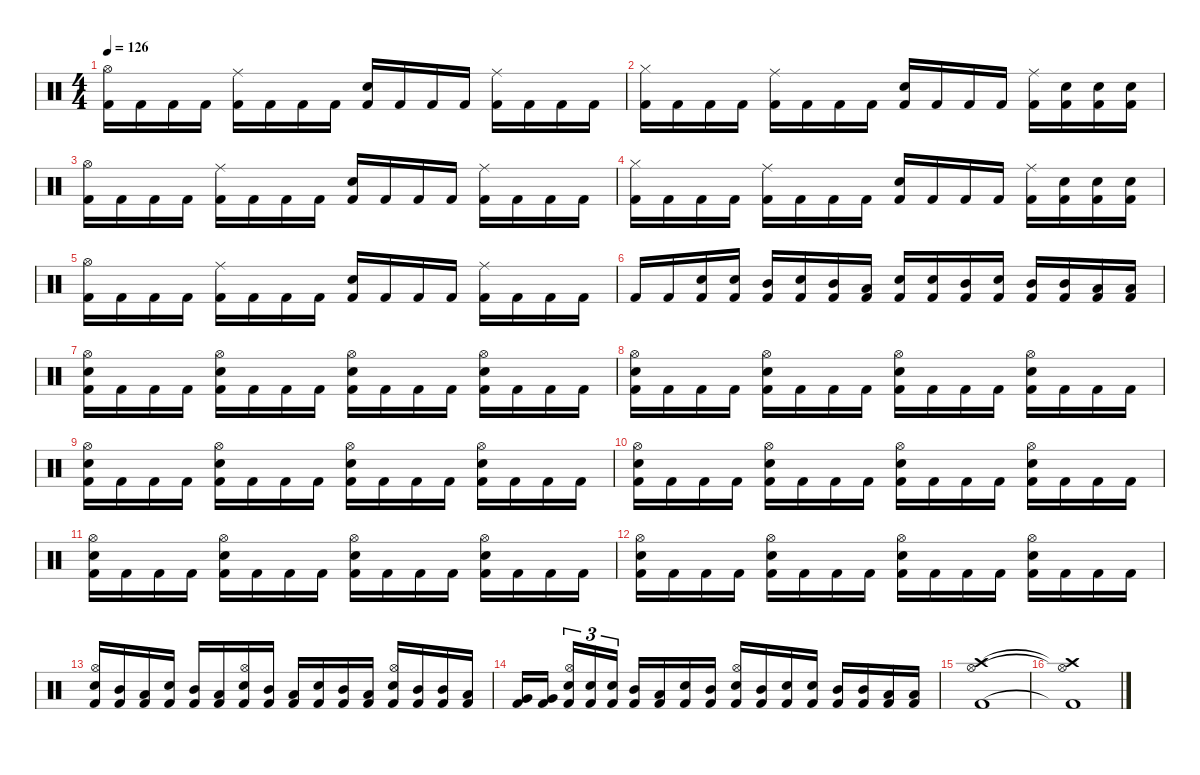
\defaultSystemsLayout 4
\hideDynamics
\bracketExtendMode nobrackets
\singleTrackTrackNamePolicy hidden
\multiTrackTrackNamePolicy hidden
\firstSystemTrackNameMode fullname
\firstSystemTrackNameOrientation horizontal
\otherSystemsTrackNameOrientation horizontal
\track ("Drums" "drm.") {instrument percussion}
\staff {score}
\articulation defaults
\ts (4 4)
\tempo 126
\clef neutral
\ks c
("Hi-Hat (open)" "Kick (hit) 2").16{dy f beam Down} "Kick (hit) 2".16{beam Down} "Kick (hit) 2".16{beam Down} "Kick (hit) 2".16{beam Down} ("Ride (middle)" "Kick (hit) 2").16{beam Down} "Kick (hit) 2".16{beam Down} "Kick (hit) 2".16{beam Down} "Kick (hit) 2".16{beam Down} ("Snare (hit) 2" "Kick (hit) 2").16{beam Up} "Kick (hit) 2".16{beam Up} "Kick (hit) 2".16{beam Up} "Kick (hit) 2".16{beam Up} ("Ride (middle)" "Kick (hit) 2").16{beam Down} "Kick (hit) 2".16{beam Down} "Kick (hit) 2".16{beam Down} "Kick (hit) 2".16{beam Down} |
("Hi-Hat (closed)" "Kick (hit) 2").16{beam Down} "Kick (hit) 2".16{beam Down} "Kick (hit) 2".16{beam Down} "Kick (hit) 2".16{beam Down} ("Ride (middle)" "Kick (hit) 2").16{beam Down} "Kick (hit) 2".16{beam Down} "Kick (hit) 2".16{beam Down} "Kick (hit) 2".16{beam Down} ("Snare (hit) 2" "Kick (hit) 2").16{beam Up} "Kick (hit) 2".16{beam Up} "Kick (hit) 2".16{beam Up} "Kick (hit) 2".16{beam Up} ("Ride (middle)" "Kick (hit) 2").16{beam Down} ("Snare (hit) 2" "Kick (hit) 2").16{beam Down} ("Snare (hit) 2" "Kick (hit) 2").16{beam Down} ("Snare (hit) 2" "Kick (hit) 2").16{beam Down} |
("Hi-Hat (open)" "Kick (hit) 2").16{beam Down} "Kick (hit) 2".16{beam Down} "Kick (hit) 2".16{beam Down} "Kick (hit) 2".16{beam Down} ("Ride (middle)" "Kick (hit) 2").16{beam Down} "Kick (hit) 2".16{beam Down} "Kick (hit) 2".16{beam Down} "Kick (hit) 2".16{beam Down} ("Snare (hit) 2" "Kick (hit) 2").16{beam Up} "Kick (hit) 2".16{beam Up} "Kick (hit) 2".16{beam Up} "Kick (hit) 2".16{beam Up} ("Ride (middle)" "Kick (hit) 2").16{beam Down} "Kick (hit) 2".16{beam Down} "Kick (hit) 2".16{beam Down} "Kick (hit) 2".16{beam Down} |
("Hi-Hat (closed)" "Kick (hit) 2").16{beam Down} "Kick (hit) 2".16{beam Down} "Kick (hit) 2".16{beam Down} "Kick (hit) 2".16{beam Down} ("Ride (middle)" "Kick (hit) 2").16{beam Down} "Kick (hit) 2".16{beam Down} "Kick (hit) 2".16{beam Down} "Kick (hit) 2".16{beam Down} ("Snare (hit) 2" "Kick (hit) 2").16{beam Up} "Kick (hit) 2".16{beam Up} "Kick (hit) 2".16{beam Up} "Kick (hit) 2".16{beam Up} ("Ride (middle)" "Kick (hit) 2").16{beam Down} ("Snare (hit) 2" "Kick (hit) 2").16{beam Down} ("Snare (hit) 2" "Kick (hit) 2").16{beam Down} ("Snare (hit) 2" "Kick (hit) 2").16{beam Down} |
("Hi-Hat (open)" "Kick (hit) 2").16{beam Down} "Kick (hit) 2".16{beam Down} "Kick (hit) 2".16{beam Down} "Kick (hit) 2".16{beam Down} ("Ride (middle)" "Kick (hit) 2").16{beam Down} "Kick (hit) 2".16{beam Down} "Kick (hit) 2".16{beam Down} "Kick (hit) 2".16{beam Down} ("Snare (hit) 2" "Kick (hit) 2").16{beam Up} "Kick (hit) 2".16{beam Up} "Kick (hit) 2".16{beam Up} "Kick (hit) 2".16{beam Up} ("Ride (middle)" "Kick (hit) 2").16{beam Down} "Kick (hit) 2".16{beam Down} "Kick (hit) 2".16{beam Down} "Kick (hit) 2".16{beam Down} |
"Kick (hit) 2".16{beam Up} "Kick (hit) 2".16{beam Up} ("Snare (hit) 2" "Kick (hit) 2").16{beam Up} ("Snare (hit) 2" "Kick (hit) 2").16{beam Up} ("Mid Tom (hit)" "Kick (hit) 2").16{beam Up} ("Snare (hit) 2" "Kick (hit) 2").16{beam Up} ("Mid Tom (hit)" "Kick (hit) 2").16{beam Up} ("Low Tom (hit)" "Kick (hit) 2").16{beam Up} ("Snare (hit) 2" "Kick (hit) 2").16{beam Up} ("Snare (hit) 2" "Kick (hit) 2").16{beam Up} ("Mid Tom (hit)" "Kick (hit) 2").16{beam Up} ("Snare (hit) 2" "Kick (hit) 2").16{beam Up} ("Mid Tom (hit)" "Kick (hit) 2").16{beam Up} ("Mid Tom (hit)" "Kick (hit) 2").16{beam Up} ("Low Tom (hit)" "Kick (hit) 2").16{beam Up} ("Low Floor Tom (hit)" "Kick (hit) 2").16{beam Up} |
("Snare (hit) 2" "Hi-Hat (open)" "Kick (hit) 2").16{beam Down} "Kick (hit) 2".16{beam Down} "Kick (hit) 2".16{beam Down} "Kick (hit) 2".16{beam Down} ("Snare (hit) 2" "Hi-Hat (open)" "Kick (hit) 2").16{beam Down} "Kick (hit) 2".16{beam Down} "Kick (hit) 2".16{beam Down} "Kick (hit) 2".16{beam Down} ("Snare (hit) 2" "Hi-Hat (open)" "Kick (hit) 2").16{beam Down} "Kick (hit) 2".16{beam Down} "Kick (hit) 2".16{beam Down} "Kick (hit) 2".16{beam Down} ("Snare (hit) 2" "Hi-Hat (open)" "Kick (hit) 2").16{beam Down} "Kick (hit) 2".16{beam Down} "Kick (hit) 2".16{beam Down} "Kick (hit) 2".16{beam Down} |
("Snare (hit) 2" "Hi-Hat (open)" "Kick (hit) 2").16{beam Down} "Kick (hit) 2".16{beam Down} "Kick (hit) 2".16{beam Down} "Kick (hit) 2".16{beam Down} ("Snare (hit) 2" "Hi-Hat (open)" "Kick (hit) 2").16{beam Down} "Kick (hit) 2".16{beam Down} "Kick (hit) 2".16{beam Down} "Kick (hit) 2".16{beam Down} ("Snare (hit) 2" "Hi-Hat (open)" "Kick (hit) 2").16{beam Down} "Kick (hit) 2".16{beam Down} "Kick (hit) 2".16{beam Down} "Kick (hit) 2".16{beam Down} ("Snare (hit) 2" "Hi-Hat (open)" "Kick (hit) 2").16{beam Down} "Kick (hit) 2".16{beam Down} "Kick (hit) 2".16{beam Down} "Kick (hit) 2".16{beam Down} |
("Snare (hit) 2" "Hi-Hat (open)" "Kick (hit) 2").16{beam Down} "Kick (hit) 2".16{beam Down} "Kick (hit) 2".16{beam Down} "Kick (hit) 2".16{beam Down} ("Snare (hit) 2" "Hi-Hat (open)" "Kick (hit) 2").16{beam Down} "Kick (hit) 2".16{beam Down} "Kick (hit) 2".16{beam Down} "Kick (hit) 2".16{beam Down} ("Snare (hit) 2" "Hi-Hat (open)" "Kick (hit) 2").16{beam Down} "Kick (hit) 2".16{beam Down} "Kick (hit) 2".16{beam Down} "Kick (hit) 2".16{beam Down} ("Snare (hit) 2" "Hi-Hat (open)" "Kick (hit) 2").16{beam Down} "Kick (hit) 2".16{beam Down} "Kick (hit) 2".16{beam Down} "Kick (hit) 2".16{beam Down} |
("Snare (hit) 2" "Hi-Hat (open)" "Kick (hit) 2").16{beam Down} "Kick (hit) 2".16{beam Down} "Kick (hit) 2".16{beam Down} "Kick (hit) 2".16{beam Down} ("Snare (hit) 2" "Hi-Hat (open)" "Kick (hit) 2").16{beam Down} "Kick (hit) 2".16{beam Down} "Kick (hit) 2".16{beam Down} "Kick (hit) 2".16{beam Down} ("Snare (hit) 2" "Hi-Hat (open)" "Kick (hit) 2").16{beam Down} "Kick (hit) 2".16{beam Down} "Kick (hit) 2".16{beam Down} "Kick (hit) 2".16{beam Down} ("Snare (hit) 2" "Hi-Hat (open)" "Kick (hit) 2").16{beam Down} "Kick (hit) 2".16{beam Down} "Kick (hit) 2".16{beam Down} "Kick (hit) 2".16{beam Down} |
("Snare (hit) 2" "Hi-Hat (open)" "Kick (hit) 2").16{beam Down} "Kick (hit) 2".16{beam Down} "Kick (hit) 2".16{beam Down} "Kick (hit) 2".16{beam Down} ("Snare (hit) 2" "Hi-Hat (open)" "Kick (hit) 2").16{beam Down} "Kick (hit) 2".16{beam Down} "Kick (hit) 2".16{beam Down} "Kick (hit) 2".16{beam Down} ("Snare (hit) 2" "Hi-Hat (open)" "Kick (hit) 2").16{beam Down} "Kick (hit) 2".16{beam Down} "Kick (hit) 2".16{beam Down} "Kick (hit) 2".16{beam Down} ("Snare (hit) 2" "Hi-Hat (open)" "Kick (hit) 2").16{beam Down} "Kick (hit) 2".16{beam Down} "Kick (hit) 2".16{beam Down} "Kick (hit) 2".16{beam Down} |
("Snare (hit) 2" "Hi-Hat (open)" "Kick (hit) 2").16{beam Down} "Kick (hit) 2".16{beam Down} "Kick (hit) 2".16{beam Down} "Kick (hit) 2".16{beam Down} ("Snare (hit) 2" "Hi-Hat (open)" "Kick (hit) 2").16{beam Down} "Kick (hit) 2".16{beam Down} "Kick (hit) 2".16{beam Down} "Kick (hit) 2".16{beam Down} ("Snare (hit) 2" "Hi-Hat (open)" "Kick (hit) 2").16{beam Down} "Kick (hit) 2".16{beam Down} "Kick (hit) 2".16{beam Down} "Kick (hit) 2".16{beam Down} ("Snare (hit) 2" "Hi-Hat (open)" "Kick (hit) 2").16{beam Down} "Kick (hit) 2".16{beam Down} "Kick (hit) 2".16{beam Down} "Kick (hit) 2".16{beam Down} |
("Snare (hit) 2" "Hi-Hat (open)" "Kick (hit) 2").16{beam Up} ("Mid Tom (hit)" "Kick (hit) 2").16{beam Up} ("Low Tom (hit)" "Kick (hit) 2").16{beam Up} ("Snare (hit) 2" "Kick (hit) 2").16{beam Up} ("Mid Tom (hit)" "Kick (hit) 2").16{beam Up} ("Low Tom (hit)" "Kick (hit) 2").16{beam Up} ("Snare (hit) 2" "Hi-Hat (open)" "Kick (hit) 2").16{beam Up} ("Mid Tom (hit)" "Kick (hit) 2").16{beam Up} ("Low Tom (hit)" "Kick (hit) 2").16{beam Up} ("Snare (hit) 2" "Kick (hit) 2").16{beam Up} ("Mid Tom (hit)" "Kick (hit) 2").16{beam Up} ("Low Tom (hit)" "Kick (hit) 2").16{beam Up} ("Snare (hit) 2" "Hi-Hat (open)" "Kick (hit) 2").16{beam Up} ("Mid Tom (hit)" "Kick (hit) 2").16{beam Up} ("Mid Tom (hit)" "Kick (hit) 2").16{beam Up} ("Low Tom (hit)" "Kick (hit) 2").16{beam Up} |
("Very Low Tom (hit)" "Kick (hit) 2").16{beam Up} ("Very Low Tom (hit)" "Kick (hit) 2").16{beam Up} ("Snare (hit) 2" "Hi-Hat (open)" "Kick (hit) 2").16{tu (3 2) beam Up} ("Snare (hit) 2" "Kick (hit) 2").16{tu (3 2) beam Up} ("Snare (hit) 2" "Kick (hit) 2").16{tu (3 2) beam Up} ("Mid Tom (hit)" "Kick (hit) 2").16{beam Up} ("Low Tom (hit)" "Kick (hit) 2").16{beam Up} ("Snare (hit) 2" "Kick (hit) 2").16{beam Up} ("Mid Tom (hit)" "Kick (hit) 2").16{beam Up} ("Snare (hit) 2" "Hi-Hat (open)" "Kick (hit) 2").16{beam Up} ("Mid Tom (hit)" "Kick (hit) 2").16{beam Up} ("Snare (hit) 2" "Kick (hit) 2").16{beam Up} ("Snare (hit) 2" "Kick (hit) 2").16{beam Up} ("Mid Tom (hit)" "Kick (hit) 2").16{beam Up} ("Mid Tom (hit)" "Kick (hit) 2").16{beam Up} ("Low Tom (hit)" "Kick (hit) 2").16{beam Up} ("Low Tom (hit)" "Kick (hit) 2").16{beam Up} |
("Crash high (hit)" "Hi-Hat (open)" "Kick (hit) 2").1{beam Down} |
("Crash high (hit)"{t} "Hi-Hat (open)"{t} "Kick (hit) 2"{t}).1{beam Down}
